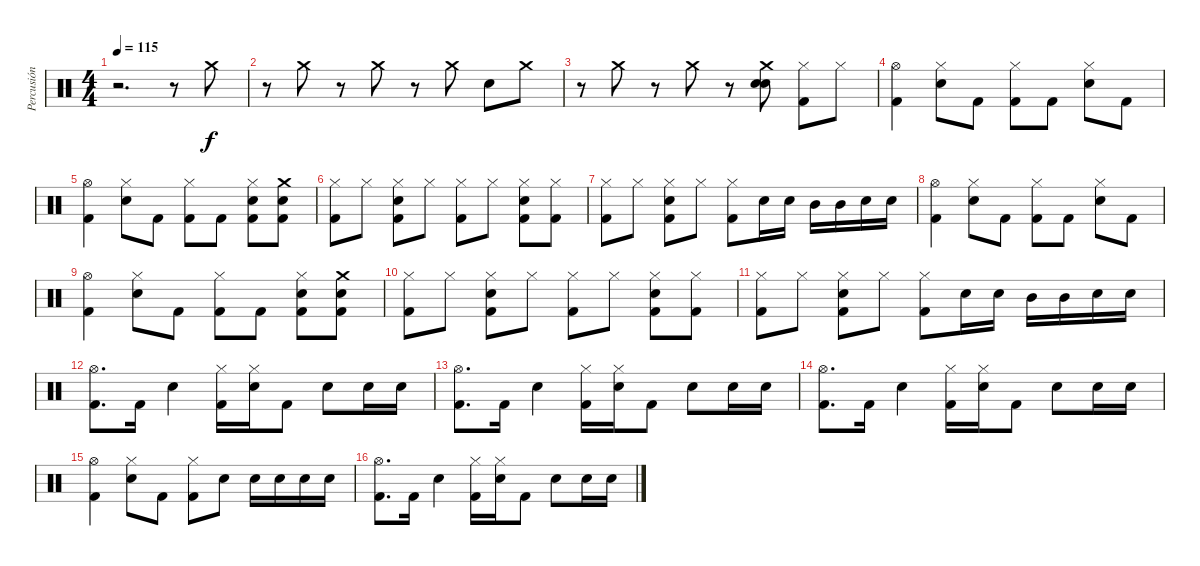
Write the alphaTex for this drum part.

\track ("Percusión" "Percusión") {instrument percussion}
\staff {score}
\articulation defaults
\ts (4 4)
\tempo 115
\clef neutral
\ks c
r.2{d dy f} r.8 "Crash medium (hit)".8 |
r.8 "Crash medium (hit)".8 r.8 "Crash medium (hit)".8 r.8 "Crash medium (hit)".8 "Electric Snare (hit)".8 "Crash medium (hit)".8 |
r.8 "Crash medium (hit)".8 r.8 "Crash medium (hit)".8 r.8 ("Crash medium (hit)" "Electric Snare (hit)" "Snare (hit) 2").8 ("Hi-Hat (closed)" "Kick (hit) 2").8 "Hi-Hat (closed)".8 |
("Hi-Hat (open)" "Kick (hit) 2").4 ("Hi-Hat (closed)" "Electric Snare (hit)").8 "Kick (hit) 2".8 ("Hi-Hat (closed)" "Kick (hit) 2").8 "Kick (hit) 2".8 ("Hi-Hat (closed)" "Electric Snare (hit)").8 "Kick (hit) 2".8 |
("Hi-Hat (open)" "Kick (hit) 2").4 ("Hi-Hat (closed)" "Electric Snare (hit)").8 "Kick (hit) 2".8 ("Hi-Hat (closed)" "Kick (hit) 2").8 "Kick (hit) 2".8 ("Hi-Hat (closed)" "Snare (hit) 2" "Kick (hit) 2").8 ("Crash medium (hit)" "Electric Snare (hit)" "Kick (hit) 2").8 |
("Hi-Hat (closed)" "Kick (hit) 2").8 "Hi-Hat (closed)".8 ("Hi-Hat (closed)" "Electric Snare (hit)" "Kick (hit) 2").8 "Hi-Hat (closed)".8 ("Hi-Hat (closed)" "Kick (hit) 2").8 "Hi-Hat (closed)".8 ("Hi-Hat (closed)" "Electric Snare (hit)" "Kick (hit) 2").8 ("Hi-Hat (closed)" "Kick (hit) 2").8 |
("Hi-Hat (closed)" "Kick (hit) 2").8 "Hi-Hat (closed)".8 ("Hi-Hat (closed)" "Electric Snare (hit)" "Kick (hit) 2").8 "Hi-Hat (closed)".8 ("Hi-Hat (closed)" "Kick (hit) 2").8 "Electric Snare (hit)".16 "Electric Snare (hit)".16 "Mid Tom (hit)".16 "Mid Tom (hit)".16 "Electric Snare (hit)".16 "Electric Snare (hit)".16 |
("Hi-Hat (open)" "Kick (hit) 2").4 ("Hi-Hat (closed)" "Electric Snare (hit)").8 "Kick (hit) 2".8 ("Hi-Hat (closed)" "Kick (hit) 2").8 "Kick (hit) 2".8 ("Hi-Hat (closed)" "Electric Snare (hit)").8 "Kick (hit) 2".8 |
("Hi-Hat (open)" "Kick (hit) 2").4 ("Hi-Hat (closed)" "Electric Snare (hit)").8 "Kick (hit) 2".8 ("Hi-Hat (closed)" "Kick (hit) 2").8 "Kick (hit) 2".8 ("Hi-Hat (closed)" "Snare (hit) 2" "Kick (hit) 2").8 ("Crash medium (hit)" "Electric Snare (hit)" "Kick (hit) 2").8 |
("Hi-Hat (closed)" "Kick (hit) 2").8 "Hi-Hat (closed)".8 ("Hi-Hat (closed)" "Electric Snare (hit)" "Kick (hit) 2").8 "Hi-Hat (closed)".8 ("Hi-Hat (closed)" "Kick (hit) 2").8 "Hi-Hat (closed)".8 ("Hi-Hat (closed)" "Electric Snare (hit)" "Kick (hit) 2").8 ("Hi-Hat (closed)" "Kick (hit) 2").8 |
("Hi-Hat (closed)" "Kick (hit) 2").8 "Hi-Hat (closed)".8 ("Hi-Hat (closed)" "Electric Snare (hit)" "Kick (hit) 2").8 "Hi-Hat (closed)".8 ("Hi-Hat (closed)" "Kick (hit) 2").8 "Electric Snare (hit)".16 "Electric Snare (hit)".16 "Mid Tom (hit)".16 "Mid Tom (hit)".16 "Electric Snare (hit)".16 "Electric Snare (hit)".16 |
("Hi-Hat (open)" "Kick (hit) 2").8{d} "Kick (hit) 2".16 "Electric Snare (hit)".4 ("Hi-Hat (closed)" "Kick (hit) 2").16 ("Hi-Hat (closed)" "Electric Snare (hit)").16 "Kick (hit) 2".8 "Electric Snare (hit)".8 "Electric Snare (hit)".16 "Electric Snare (hit)".16 |
("Hi-Hat (open)" "Kick (hit) 2").8{d} "Kick (hit) 2".16 "Electric Snare (hit)".4 ("Hi-Hat (closed)" "Kick (hit) 2").16 ("Hi-Hat (closed)" "Electric Snare (hit)").16 "Kick (hit) 2".8 "Electric Snare (hit)".8 "Electric Snare (hit)".16 "Electric Snare (hit)".16 |
("Hi-Hat (open)" "Kick (hit) 2").8{d} "Kick (hit) 2".16 "Electric Snare (hit)".4 ("Hi-Hat (closed)" "Kick (hit) 2").16 ("Hi-Hat (closed)" "Electric Snare (hit)").16 "Kick (hit) 2".8 "Electric Snare (hit)".8 "Electric Snare (hit)".16 "Electric Snare (hit)".16 |
("Hi-Hat (open)" "Kick (hit) 2").4 ("Hi-Hat (closed)" "Electric Snare (hit)").8 "Kick (hit) 2".8 ("Hi-Hat (closed)" "Kick (hit) 2").8 "Electric Snare (hit)".8 "Electric Snare (hit)".16 "Electric Snare (hit)".16 "Electric Snare (hit)".16 "Electric Snare (hit)".16 |
("Hi-Hat (open)" "Kick (hit) 2").8{d} "Kick (hit) 2".16 "Electric Snare (hit)".4 ("Hi-Hat (closed)" "Kick (hit) 2").16 ("Hi-Hat (closed)" "Electric Snare (hit)").16 "Kick (hit) 2".8 "Electric Snare (hit)".8 "Electric Snare (hit)".16 "Electric Snare (hit)".16
